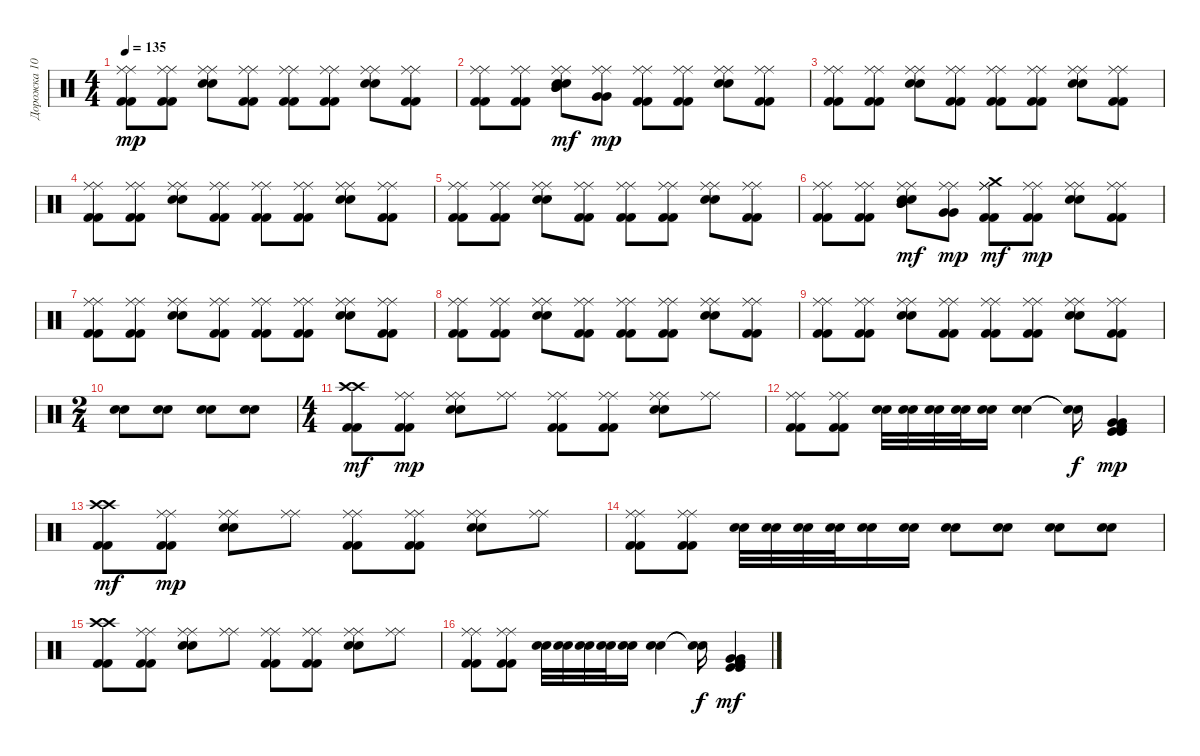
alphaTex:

\track ("Дорожка 10" "Дорожка 10") {instrument percussion}
\staff {score}
\articulation defaults
\ts (4 4)
\tempo 135
\clef neutral
\ks c
("Kick (hit) 2" "Ride (middle)" "Kick (hit) 2" "Ride (middle)").8{dy mp} ("Kick (hit) 2" "Ride (middle)" "Kick (hit) 2" "Ride (middle)").8 ("Snare (hit) 2" "Ride (middle)" "Snare (hit) 2" "Ride (middle)").8 ("Kick (hit) 2" "Ride (middle)" "Kick (hit) 2" "Ride (middle)").8 ("Kick (hit) 2" "Ride (middle)" "Kick (hit) 2" "Ride (middle)").8 ("Kick (hit) 2" "Ride (middle)" "Kick (hit) 2" "Ride (middle)").8 ("Snare (hit) 2" "Ride (middle)" "Snare (hit) 2" "Ride (middle)").8 ("Kick (hit) 2" "Ride (middle)" "Kick (hit) 2" "Ride (middle)").8 |
("Kick (hit) 2" "Ride (middle)" "Kick (hit) 2" "Ride (middle)").8 ("Kick (hit) 2" "Ride (middle)" "Kick (hit) 2" "Ride (middle)").8 ("Snare (hit) 2" "Mid Tom (hit)" "Ride (middle)" "Snare (hit) 2" "Mid Tom (hit)" "Ride (middle)").8{dy mf} ("Very Low Tom (hit)" "Ride (middle)" "Very Low Tom (hit)" "Ride (middle)").8{dy mp} ("Kick (hit) 2" "Ride (middle)" "Kick (hit) 2" "Ride (middle)").8 ("Kick (hit) 2" "Ride (middle)" "Kick (hit) 2" "Ride (middle)").8 ("Snare (hit) 2" "Ride (middle)" "Snare (hit) 2" "Ride (middle)").8 ("Kick (hit) 2" "Ride (middle)" "Kick (hit) 2" "Ride (middle)").8 |
("Kick (hit) 2" "Ride (middle)" "Kick (hit) 2" "Ride (middle)").8 ("Kick (hit) 2" "Ride (middle)" "Kick (hit) 2" "Ride (middle)").8 ("Snare (hit) 2" "Ride (middle)" "Snare (hit) 2" "Ride (middle)").8 ("Kick (hit) 2" "Ride (middle)" "Kick (hit) 2" "Ride (middle)").8 ("Kick (hit) 2" "Ride (middle)" "Kick (hit) 2" "Ride (middle)").8 ("Kick (hit) 2" "Ride (middle)" "Kick (hit) 2" "Ride (middle)").8 ("Snare (hit) 2" "Ride (middle)" "Snare (hit) 2" "Ride (middle)").8 ("Kick (hit) 2" "Ride (middle)" "Kick (hit) 2" "Ride (middle)").8 |
("Kick (hit) 2" "Ride (middle)" "Kick (hit) 2" "Ride (middle)").8 ("Kick (hit) 2" "Ride (middle)" "Kick (hit) 2" "Ride (middle)").8 ("Snare (hit) 2" "Ride (middle)" "Snare (hit) 2" "Ride (middle)").8 ("Kick (hit) 2" "Ride (middle)" "Kick (hit) 2" "Ride (middle)").8 ("Kick (hit) 2" "Ride (middle)" "Kick (hit) 2" "Ride (middle)").8 ("Kick (hit) 2" "Ride (middle)" "Kick (hit) 2" "Ride (middle)").8 ("Snare (hit) 2" "Ride (middle)" "Snare (hit) 2" "Ride (middle)").8 ("Kick (hit) 2" "Ride (middle)" "Kick (hit) 2" "Ride (middle)").8 |
("Kick (hit) 2" "Ride (middle)" "Kick (hit) 2" "Ride (middle)").8 ("Kick (hit) 2" "Ride (middle)" "Kick (hit) 2" "Ride (middle)").8 ("Snare (hit) 2" "Ride (middle)" "Snare (hit) 2" "Ride (middle)").8 ("Kick (hit) 2" "Ride (middle)" "Kick (hit) 2" "Ride (middle)").8 ("Kick (hit) 2" "Ride (middle)" "Kick (hit) 2" "Ride (middle)").8 ("Kick (hit) 2" "Ride (middle)" "Kick (hit) 2" "Ride (middle)").8 ("Snare (hit) 2" "Ride (middle)" "Snare (hit) 2" "Ride (middle)").8 ("Kick (hit) 2" "Ride (middle)" "Kick (hit) 2" "Ride (middle)").8 |
("Kick (hit) 2" "Ride (middle)" "Kick (hit) 2" "Ride (middle)").8 ("Kick (hit) 2" "Ride (middle)" "Kick (hit) 2" "Ride (middle)").8 ("Snare (hit) 2" "Mid Tom (hit)" "Ride (middle)" "Snare (hit) 2" "Mid Tom (hit)" "Ride (middle)").8{dy mf} ("Very Low Tom (hit)" "Ride (middle)" "Very Low Tom (hit)" "Ride (middle)").8{dy mp} ("Kick (hit) 2" "Ride (middle)" "Kick (hit) 2" "Ride (middle)" "Crash medium (hit)").8{dy mf} ("Kick (hit) 2" "Ride (middle)" "Kick (hit) 2" "Ride (middle)").8{dy mp} ("Snare (hit) 2" "Ride (middle)" "Snare (hit) 2" "Ride (middle)").8 ("Kick (hit) 2" "Ride (middle)" "Kick (hit) 2" "Ride (middle)").8 |
("Kick (hit) 2" "Ride (middle)" "Kick (hit) 2" "Ride (middle)").8 ("Kick (hit) 2" "Ride (middle)" "Kick (hit) 2" "Ride (middle)").8 ("Snare (hit) 2" "Ride (middle)" "Snare (hit) 2" "Ride (middle)").8 ("Kick (hit) 2" "Ride (middle)" "Kick (hit) 2" "Ride (middle)").8 ("Kick (hit) 2" "Ride (middle)" "Kick (hit) 2" "Ride (middle)").8 ("Kick (hit) 2" "Ride (middle)" "Kick (hit) 2" "Ride (middle)").8 ("Snare (hit) 2" "Ride (middle)" "Snare (hit) 2" "Ride (middle)").8 ("Kick (hit) 2" "Ride (middle)" "Kick (hit) 2" "Ride (middle)").8 |
("Kick (hit) 2" "Ride (middle)" "Kick (hit) 2" "Ride (middle)").8 ("Kick (hit) 2" "Ride (middle)" "Kick (hit) 2" "Ride (middle)").8 ("Snare (hit) 2" "Ride (middle)" "Snare (hit) 2" "Ride (middle)").8 ("Kick (hit) 2" "Ride (middle)" "Kick (hit) 2" "Ride (middle)").8 ("Kick (hit) 2" "Ride (middle)" "Kick (hit) 2" "Ride (middle)").8 ("Kick (hit) 2" "Ride (middle)" "Kick (hit) 2" "Ride (middle)").8 ("Snare (hit) 2" "Ride (middle)" "Snare (hit) 2" "Ride (middle)").8 ("Kick (hit) 2" "Ride (middle)" "Kick (hit) 2" "Ride (middle)").8 |
("Kick (hit) 2" "Ride (middle)" "Kick (hit) 2" "Ride (middle)").8 ("Kick (hit) 2" "Ride (middle)" "Kick (hit) 2" "Ride (middle)").8 ("Snare (hit) 2" "Ride (middle)" "Snare (hit) 2" "Ride (middle)").8 ("Kick (hit) 2" "Ride (middle)" "Kick (hit) 2" "Ride (middle)").8 ("Kick (hit) 2" "Ride (middle)" "Kick (hit) 2" "Ride (middle)").8 ("Kick (hit) 2" "Ride (middle)" "Kick (hit) 2" "Ride (middle)").8 ("Snare (hit) 2" "Ride (middle)" "Snare (hit) 2" "Ride (middle)").8 ("Kick (hit) 2" "Ride (middle)" "Kick (hit) 2" "Ride (middle)").8 |
\ts (2 4)
("Snare (hit) 2" "Snare (hit) 2").8 ("Snare (hit) 2" "Snare (hit) 2").8 ("Snare (hit) 2" "Snare (hit) 2").8 ("Snare (hit) 2" "Snare (hit) 2").8 |
\ts (4 4)
("Kick (hit) 2" "Crash high (hit)" "Kick (hit) 2" "Crash high (hit)").8{dy mf} ("Kick (hit) 2" "Ride (middle)" "Kick (hit) 2" "Ride (middle)").8{dy mp} ("Snare (hit) 2" "Ride (middle)" "Snare (hit) 2" "Ride (middle)").8 ("Ride (middle)" "Ride (middle)").8 ("Kick (hit) 2" "Ride (middle)" "Kick (hit) 2" "Ride (middle)").8 ("Kick (hit) 2" "Ride (middle)" "Kick (hit) 2" "Ride (middle)").8 ("Snare (hit) 2" "Ride (middle)" "Snare (hit) 2" "Ride (middle)").8 ("Ride (middle)" "Ride (middle)").8 |
("Kick (hit) 2" "Ride (middle)" "Kick (hit) 2" "Ride (middle)").8 ("Kick (hit) 2" "Ride (middle)" "Kick (hit) 2" "Ride (middle)").8 ("Snare (hit) 2" "Snare (hit) 2").32 ("Snare (hit) 2" "Snare (hit) 2").32 ("Snare (hit) 2" "Snare (hit) 2").32 ("Snare (hit) 2" "Snare (hit) 2").32 ("Snare (hit) 2" "Snare (hit) 2").16 ("Snare (hit) 2" "Snare (hit) 2").4 ("Snare (hit)"{t} "Snare (hit)"{t}).16{dy f} ("Kick (hit)" "Kick (hit) 2" "Very Low Tom (hit)" "Kick (hit)" "Kick (hit) 2" "Very Low Tom (hit)").4{dy mp} |
("Kick (hit) 2" "Crash high (hit)" "Kick (hit) 2" "Crash high (hit)").8{dy mf} ("Kick (hit) 2" "Ride (middle)" "Kick (hit) 2" "Ride (middle)").8{dy mp} ("Snare (hit) 2" "Ride (middle)" "Snare (hit) 2" "Ride (middle)").8 ("Ride (middle)" "Ride (middle)").8 ("Kick (hit) 2" "Ride (middle)" "Kick (hit) 2" "Ride (middle)").8 ("Kick (hit) 2" "Ride (middle)" "Kick (hit) 2" "Ride (middle)").8 ("Snare (hit) 2" "Ride (middle)" "Snare (hit) 2" "Ride (middle)").8 ("Ride (middle)" "Ride (middle)").8 |
("Kick (hit) 2" "Ride (middle)" "Kick (hit) 2" "Ride (middle)").8 ("Kick (hit) 2" "Ride (middle)" "Kick (hit) 2" "Ride (middle)").8 ("Snare (hit) 2" "Snare (hit) 2").32 ("Snare (hit) 2" "Snare (hit) 2").32 ("Snare (hit) 2" "Snare (hit) 2").32 ("Snare (hit) 2" "Snare (hit) 2").32 ("Snare (hit) 2" "Snare (hit) 2").16 ("Snare (hit) 2" "Snare (hit) 2").16 ("Snare (hit) 2" "Snare (hit) 2").8 ("Snare (hit) 2" "Snare (hit) 2").8 ("Snare (hit) 2" "Snare (hit) 2").8 ("Snare (hit) 2" "Snare (hit) 2").8 |
("Kick (hit) 2" "Crash high (hit)" "Kick (hit) 2" "Crash high (hit)").8 ("Kick (hit) 2" "Ride (middle)" "Kick (hit) 2" "Ride (middle)").8 ("Snare (hit) 2" "Ride (middle)" "Snare (hit) 2" "Ride (middle)").8 ("Ride (middle)" "Ride (middle)").8 ("Kick (hit) 2" "Ride (middle)" "Kick (hit) 2" "Ride (middle)").8 ("Kick (hit) 2" "Ride (middle)" "Kick (hit) 2" "Ride (middle)").8 ("Snare (hit) 2" "Ride (middle)" "Snare (hit) 2" "Ride (middle)").8 ("Ride (middle)" "Ride (middle)").8 |
("Kick (hit) 2" "Ride (middle)" "Kick (hit) 2" "Ride (middle)").8 ("Kick (hit) 2" "Ride (middle)" "Kick (hit) 2" "Ride (middle)").8 ("Snare (hit) 2" "Snare (hit) 2").32 ("Snare (hit) 2" "Snare (hit) 2").32 ("Snare (hit) 2" "Snare (hit) 2").32 ("Snare (hit) 2" "Snare (hit) 2").32 ("Snare (hit) 2" "Snare (hit) 2").16 ("Snare (hit) 2" "Snare (hit) 2").4 ("Snare (hit)"{t} "Snare (hit)"{t}).16{dy f} ("Kick (hit)" "Kick (hit) 2" "Very Low Tom (hit)" "Kick (hit)" "Kick (hit) 2" "Very Low Tom (hit)").4{dy mf}
